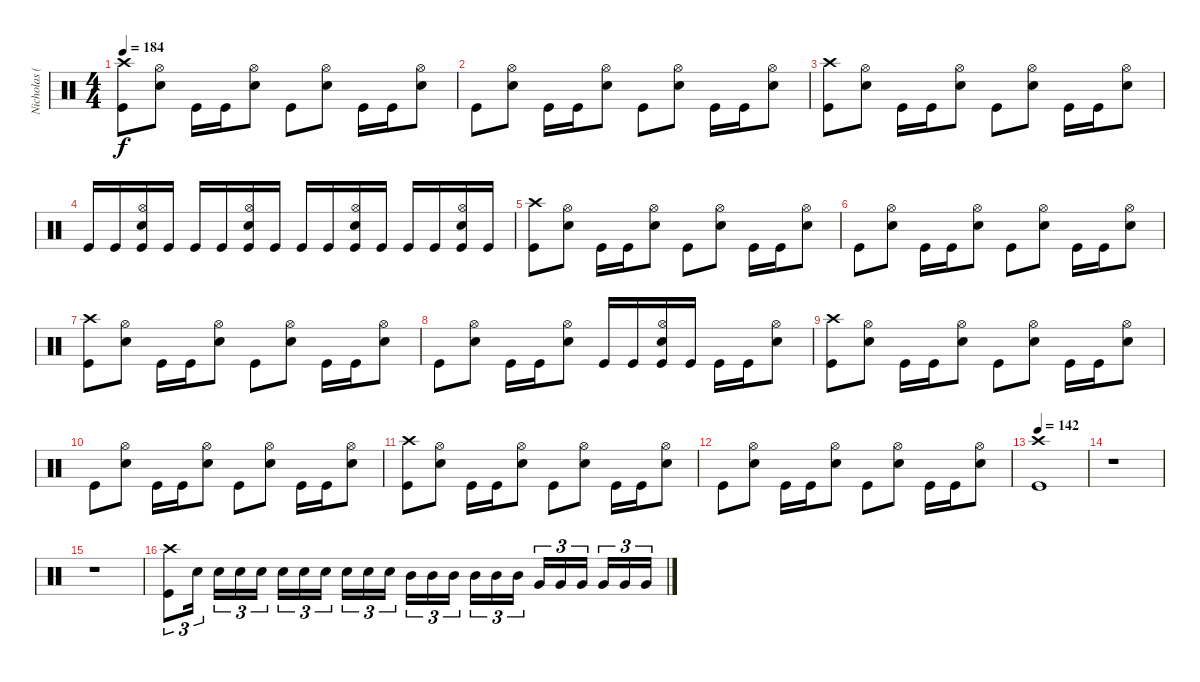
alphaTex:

\track ("Nicholas (Drums)" "Nicholas (") {instrument percussion}
\staff {score}
\articulation defaults
\ts (4 4)
\tempo 184
\clef neutral
\ks c
("Crash high (hit)" "Kick (hit)").8{dy f} ("Hi-Hat (open)" "Electric Snare (hit)").8 "Kick (hit)".16 "Kick (hit)".16 ("Hi-Hat (open)" "Electric Snare (hit)").8 "Kick (hit)".8 ("Hi-Hat (open)" "Electric Snare (hit)").8 "Kick (hit)".16 "Kick (hit)".16 ("Hi-Hat (open)" "Electric Snare (hit)").8 |
"Kick (hit)".8 ("Hi-Hat (open)" "Electric Snare (hit)").8 "Kick (hit)".16 "Kick (hit)".16 ("Hi-Hat (open)" "Electric Snare (hit)").8 "Kick (hit)".8 ("Hi-Hat (open)" "Electric Snare (hit)").8 "Kick (hit)".16 "Kick (hit)".16 ("Hi-Hat (open)" "Electric Snare (hit)").8 |
("Crash high (hit)" "Kick (hit)").8 ("Hi-Hat (open)" "Electric Snare (hit)").8 "Kick (hit)".16 "Kick (hit)".16 ("Hi-Hat (open)" "Electric Snare (hit)").8 "Kick (hit)".8 ("Hi-Hat (open)" "Electric Snare (hit)").8 "Kick (hit)".16 "Kick (hit)".16 ("Hi-Hat (open)" "Electric Snare (hit)").8 |
"Kick (hit)".16 "Kick (hit)".16 ("Hi-Hat (open)" "Electric Snare (hit)" "Kick (hit)").16 "Kick (hit)".16 "Kick (hit)".16 "Kick (hit)".16 ("Hi-Hat (open)" "Electric Snare (hit)" "Kick (hit)").16 "Kick (hit)".16 "Kick (hit)".16 "Kick (hit)".16 ("Hi-Hat (open)" "Electric Snare (hit)" "Kick (hit)").16 "Kick (hit)".16 "Kick (hit)".16 "Kick (hit)".16 ("Hi-Hat (open)" "Electric Snare (hit)" "Kick (hit)").16 "Kick (hit)".16 |
("Crash high (hit)" "Kick (hit)").8 ("Hi-Hat (open)" "Electric Snare (hit)").8 "Kick (hit)".16 "Kick (hit)".16 ("Hi-Hat (open)" "Electric Snare (hit)").8 "Kick (hit)".8 ("Hi-Hat (open)" "Electric Snare (hit)").8 "Kick (hit)".16 "Kick (hit)".16 ("Hi-Hat (open)" "Electric Snare (hit)").8 |
"Kick (hit)".8 ("Hi-Hat (open)" "Electric Snare (hit)").8 "Kick (hit)".16 "Kick (hit)".16 ("Hi-Hat (open)" "Electric Snare (hit)").8 "Kick (hit)".8 ("Hi-Hat (open)" "Electric Snare (hit)").8 "Kick (hit)".16 "Kick (hit)".16 ("Hi-Hat (open)" "Electric Snare (hit)").8 |
("Crash high (hit)" "Kick (hit)").8 ("Hi-Hat (open)" "Electric Snare (hit)").8 "Kick (hit)".16 "Kick (hit)".16 ("Hi-Hat (open)" "Electric Snare (hit)").8 "Kick (hit)".8 ("Hi-Hat (open)" "Electric Snare (hit)").8 "Kick (hit)".16 "Kick (hit)".16 ("Hi-Hat (open)" "Electric Snare (hit)").8 |
"Kick (hit)".8 ("Hi-Hat (open)" "Electric Snare (hit)").8 "Kick (hit)".16 "Kick (hit)".16 ("Hi-Hat (open)" "Electric Snare (hit)").8 "Kick (hit)".16 "Kick (hit)".16 ("Hi-Hat (open)" "Electric Snare (hit)" "Kick (hit)").16 "Kick (hit)".16 "Kick (hit)".16 "Kick (hit)".16 ("Hi-Hat (open)" "Electric Snare (hit)").8 |
("Crash high (hit)" "Kick (hit)").8 ("Hi-Hat (open)" "Electric Snare (hit)").8 "Kick (hit)".16 "Kick (hit)".16 ("Hi-Hat (open)" "Electric Snare (hit)").8 "Kick (hit)".8 ("Hi-Hat (open)" "Electric Snare (hit)").8 "Kick (hit)".16 "Kick (hit)".16 ("Hi-Hat (open)" "Electric Snare (hit)").8 |
"Kick (hit)".8 ("Hi-Hat (open)" "Electric Snare (hit)").8 "Kick (hit)".16 "Kick (hit)".16 ("Hi-Hat (open)" "Electric Snare (hit)").8 "Kick (hit)".8 ("Hi-Hat (open)" "Electric Snare (hit)").8 "Kick (hit)".16 "Kick (hit)".16 ("Hi-Hat (open)" "Electric Snare (hit)").8 |
("Crash high (hit)" "Kick (hit)").8 ("Hi-Hat (open)" "Electric Snare (hit)").8 "Kick (hit)".16 "Kick (hit)".16 ("Hi-Hat (open)" "Electric Snare (hit)").8 "Kick (hit)".8 ("Hi-Hat (open)" "Electric Snare (hit)").8 "Kick (hit)".16 "Kick (hit)".16 ("Hi-Hat (open)" "Electric Snare (hit)").8 |
"Kick (hit)".8 ("Hi-Hat (open)" "Electric Snare (hit)").8 "Kick (hit)".16 "Kick (hit)".16 ("Hi-Hat (open)" "Electric Snare (hit)").8 "Kick (hit)".8 ("Hi-Hat (open)" "Electric Snare (hit)").8 "Kick (hit)".16 "Kick (hit)".16 ("Hi-Hat (open)" "Electric Snare (hit)").8 |
\tempo 142
("Crash high (hit)" "Kick (hit)").1 |
r.1 |
r.1 |
("Crash high (hit)" "Kick (hit)").8{tu (3 2)} "Electric Snare (hit)".16{tu (3 2)} "Electric Snare (hit)".16{tu (3 2)} "Electric Snare (hit)".16{tu (3 2)} "Electric Snare (hit)".16{tu (3 2)} "Electric Snare (hit)".16{tu (3 2)} "Electric Snare (hit)".16{tu (3 2)} "Electric Snare (hit)".16{tu (3 2)} "Electric Snare (hit)".16{tu (3 2)} "Electric Snare (hit)".16{tu (3 2)} "Electric Snare (hit)".16{tu (3 2)} "Mid Tom (hit)".16{tu (3 2)} "Mid Tom (hit)".16{tu (3 2)} "Mid Tom (hit)".16{tu (3 2)} "Mid Tom (hit)".16{tu (3 2)} "Mid Tom (hit)".16{tu (3 2)} "Mid Tom (hit)".16{tu (3 2)} "Very Low Tom (hit)".16{tu (3 2)} "Very Low Tom (hit)".16{tu (3 2)} "Very Low Tom (hit)".16{tu (3 2)} "Very Low Tom (hit)".16{tu (3 2)} "Very Low Tom (hit)".16{tu (3 2)} "Very Low Tom (hit)".16{tu (3 2)}
